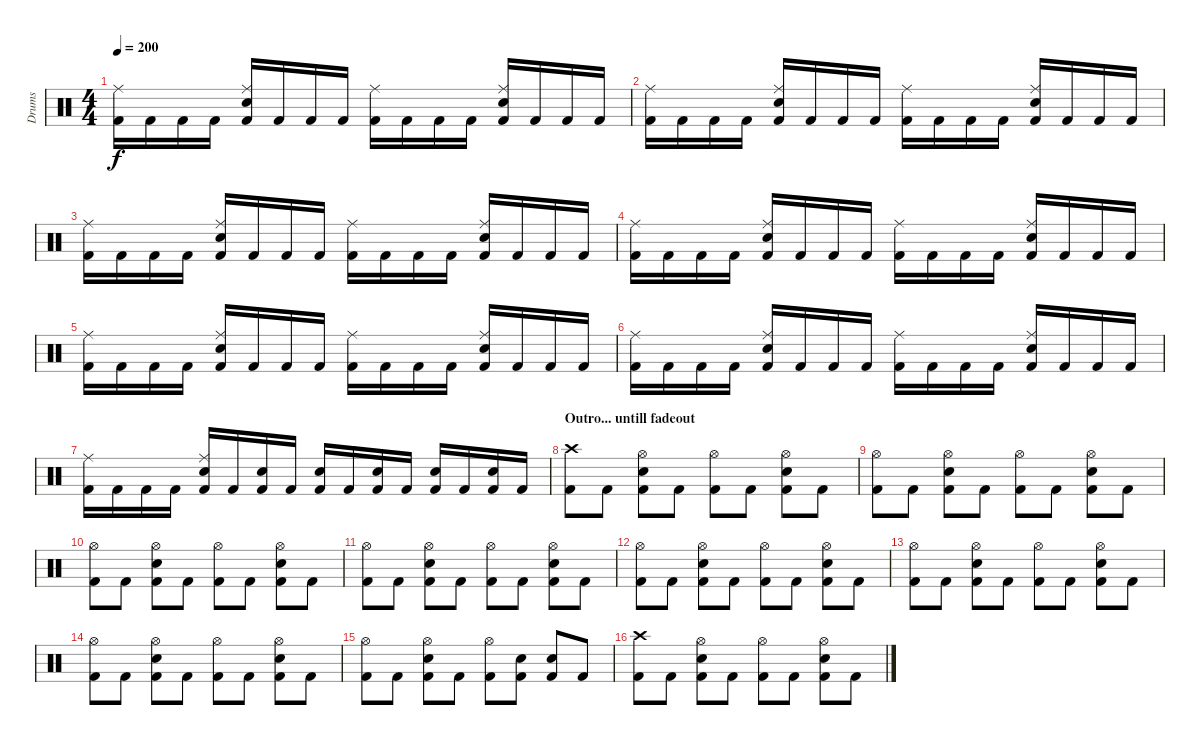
\track ("Drums" "Drums") {instrument percussion}
\staff {score}
\articulation defaults
\ts (4 4)
\tempo 200
\clef neutral
\ks c
("Kick (hit) 2" "Ride (middle)").16{dy f} "Kick (hit) 2".16 "Kick (hit) 2".16 "Kick (hit) 2".16 ("Kick (hit) 2" "Snare (hit) 2" "Ride (middle)").16 "Kick (hit) 2".16 "Kick (hit) 2".16 "Kick (hit) 2".16 ("Kick (hit) 2" "Ride (middle)").16 "Kick (hit) 2".16 "Kick (hit) 2".16 "Kick (hit) 2".16 ("Kick (hit) 2" "Snare (hit) 2" "Ride (middle)").16 "Kick (hit) 2".16 "Kick (hit) 2".16 "Kick (hit) 2".16 |
("Kick (hit) 2" "Ride (middle)").16 "Kick (hit) 2".16 "Kick (hit) 2".16 "Kick (hit) 2".16 ("Kick (hit) 2" "Snare (hit) 2" "Ride (middle)").16 "Kick (hit) 2".16 "Kick (hit) 2".16 "Kick (hit) 2".16 ("Kick (hit) 2" "Ride (middle)").16 "Kick (hit) 2".16 "Kick (hit) 2".16 "Kick (hit) 2".16 ("Kick (hit) 2" "Snare (hit) 2" "Ride (middle)").16 "Kick (hit) 2".16 "Kick (hit) 2".16 "Kick (hit) 2".16 |
("Kick (hit) 2" "Ride (middle)").16 "Kick (hit) 2".16 "Kick (hit) 2".16 "Kick (hit) 2".16 ("Kick (hit) 2" "Snare (hit) 2" "Ride (middle)").16 "Kick (hit) 2".16 "Kick (hit) 2".16 "Kick (hit) 2".16 ("Kick (hit) 2" "Ride (middle)").16 "Kick (hit) 2".16 "Kick (hit) 2".16 "Kick (hit) 2".16 ("Kick (hit) 2" "Snare (hit) 2" "Ride (middle)").16 "Kick (hit) 2".16 "Kick (hit) 2".16 "Kick (hit) 2".16 |
("Kick (hit) 2" "Ride (middle)").16 "Kick (hit) 2".16 "Kick (hit) 2".16 "Kick (hit) 2".16 ("Kick (hit) 2" "Snare (hit) 2" "Ride (middle)").16 "Kick (hit) 2".16 "Kick (hit) 2".16 "Kick (hit) 2".16 ("Kick (hit) 2" "Ride (middle)").16 "Kick (hit) 2".16 "Kick (hit) 2".16 "Kick (hit) 2".16 ("Kick (hit) 2" "Snare (hit) 2" "Ride (middle)").16 "Kick (hit) 2".16 "Kick (hit) 2".16 "Kick (hit) 2".16 |
("Kick (hit) 2" "Ride (middle)").16 "Kick (hit) 2".16 "Kick (hit) 2".16 "Kick (hit) 2".16 ("Kick (hit) 2" "Snare (hit) 2" "Ride (middle)").16 "Kick (hit) 2".16 "Kick (hit) 2".16 "Kick (hit) 2".16 ("Kick (hit) 2" "Ride (middle)").16 "Kick (hit) 2".16 "Kick (hit) 2".16 "Kick (hit) 2".16 ("Kick (hit) 2" "Snare (hit) 2" "Ride (middle)").16 "Kick (hit) 2".16 "Kick (hit) 2".16 "Kick (hit) 2".16 |
("Kick (hit) 2" "Ride (middle)").16 "Kick (hit) 2".16 "Kick (hit) 2".16 "Kick (hit) 2".16 ("Kick (hit) 2" "Snare (hit) 2" "Ride (middle)").16 "Kick (hit) 2".16 "Kick (hit) 2".16 "Kick (hit) 2".16 ("Kick (hit) 2" "Ride (middle)").16 "Kick (hit) 2".16 "Kick (hit) 2".16 "Kick (hit) 2".16 ("Kick (hit) 2" "Snare (hit) 2" "Ride (middle)").16 "Kick (hit) 2".16 "Kick (hit) 2".16 "Kick (hit) 2".16 |
("Kick (hit) 2" "Ride (middle)").16 "Kick (hit) 2".16 "Kick (hit) 2".16 "Kick (hit) 2".16 ("Kick (hit) 2" "Snare (hit) 2" "Ride (middle)").16 "Kick (hit) 2".16 ("Kick (hit) 2" "Snare (hit) 2").16 "Kick (hit) 2".16 ("Kick (hit) 2" "Snare (hit) 2").16 "Kick (hit) 2".16 ("Kick (hit) 2" "Snare (hit) 2").16 "Kick (hit) 2".16 ("Kick (hit) 2" "Snare (hit) 2").16 "Kick (hit) 2".16 ("Kick (hit) 2" "Snare (hit) 2").16 "Kick (hit) 2".16 |
\section ("" "Outro... untill fadeout")
("Kick (hit) 2" "Crash high (hit)").8 "Kick (hit) 2".8 ("Kick (hit) 2" "Snare (hit) 2" "Hi-Hat (open)").8 "Kick (hit) 2".8 ("Kick (hit) 2" "Hi-Hat (open)").8 "Kick (hit) 2".8 ("Kick (hit) 2" "Snare (hit) 2" "Hi-Hat (open)").8 "Kick (hit) 2".8 |
("Kick (hit) 2" "Hi-Hat (open)").8 "Kick (hit) 2".8 ("Kick (hit) 2" "Snare (hit) 2" "Hi-Hat (open)").8 "Kick (hit) 2".8 ("Kick (hit) 2" "Hi-Hat (open)").8 "Kick (hit) 2".8 ("Kick (hit) 2" "Snare (hit) 2" "Hi-Hat (open)").8 "Kick (hit) 2".8 |
("Kick (hit) 2" "Hi-Hat (open)").8 "Kick (hit) 2".8 ("Kick (hit) 2" "Snare (hit) 2" "Hi-Hat (open)").8 "Kick (hit) 2".8 ("Kick (hit) 2" "Hi-Hat (open)").8 "Kick (hit) 2".8 ("Kick (hit) 2" "Snare (hit) 2" "Hi-Hat (open)").8 "Kick (hit) 2".8 |
("Kick (hit) 2" "Hi-Hat (open)").8 "Kick (hit) 2".8 ("Kick (hit) 2" "Snare (hit) 2" "Hi-Hat (open)").8 "Kick (hit) 2".8 ("Kick (hit) 2" "Hi-Hat (open)").8 "Kick (hit) 2".8 ("Kick (hit) 2" "Snare (hit) 2" "Hi-Hat (open)").8 "Kick (hit) 2".8 |
("Kick (hit) 2" "Hi-Hat (open)").8 "Kick (hit) 2".8 ("Kick (hit) 2" "Snare (hit) 2" "Hi-Hat (open)").8 "Kick (hit) 2".8 ("Kick (hit) 2" "Hi-Hat (open)").8 "Kick (hit) 2".8 ("Kick (hit) 2" "Snare (hit) 2" "Hi-Hat (open)").8 "Kick (hit) 2".8 |
("Kick (hit) 2" "Hi-Hat (open)").8 "Kick (hit) 2".8 ("Kick (hit) 2" "Snare (hit) 2" "Hi-Hat (open)").8 "Kick (hit) 2".8 ("Kick (hit) 2" "Hi-Hat (open)").8 "Kick (hit) 2".8 ("Kick (hit) 2" "Snare (hit) 2" "Hi-Hat (open)").8 "Kick (hit) 2".8 |
("Kick (hit) 2" "Hi-Hat (open)").8 "Kick (hit) 2".8 ("Kick (hit) 2" "Snare (hit) 2" "Hi-Hat (open)").8 "Kick (hit) 2".8 ("Kick (hit) 2" "Hi-Hat (open)").8 "Kick (hit) 2".8 ("Kick (hit) 2" "Snare (hit) 2" "Hi-Hat (open)").8 "Kick (hit) 2".8 |
("Kick (hit) 2" "Hi-Hat (open)").8 "Kick (hit) 2".8 ("Kick (hit) 2" "Snare (hit) 2" "Hi-Hat (open)").8 "Kick (hit) 2".8 ("Kick (hit) 2" "Hi-Hat (open)").8 ("Kick (hit) 2" "Snare (hit) 2").8 ("Kick (hit) 2" "Snare (hit) 2").8 "Kick (hit) 2".8 |
("Kick (hit) 2" "Crash high (hit)").8 "Kick (hit) 2".8 ("Kick (hit) 2" "Snare (hit) 2" "Hi-Hat (open)").8 "Kick (hit) 2".8 ("Kick (hit) 2" "Hi-Hat (open)").8 "Kick (hit) 2".8 ("Kick (hit) 2" "Snare (hit) 2" "Hi-Hat (open)").8 "Kick (hit) 2".8
